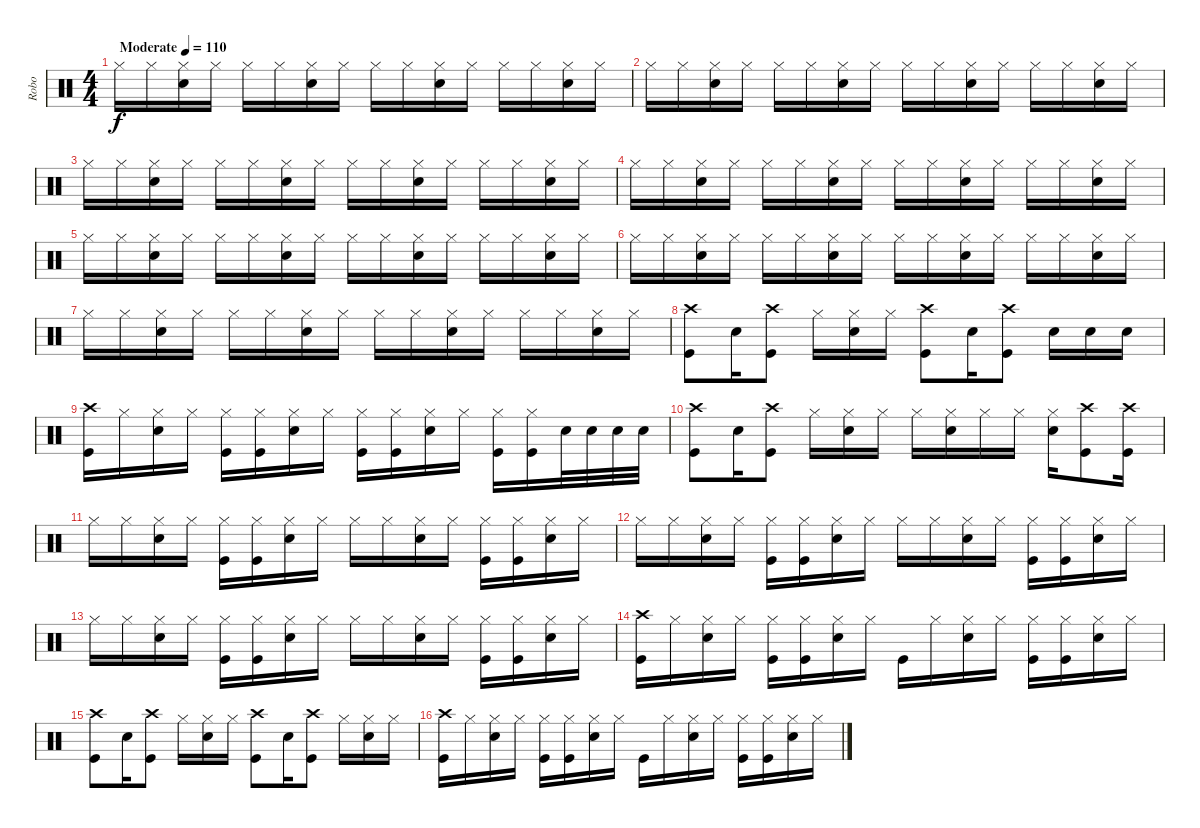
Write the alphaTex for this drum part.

\track ("Robo" "Robo") {instrument percussion}
\staff {score}
\articulation defaults
\ts (4 4)
\tempo (110 "Moderate")
\clef neutral
\ks c "Hi-Hat (closed)".16{dy f} "Hi-Hat (closed)".16
("Snare (hit) 2" "Hi-Hat (closed)").16 "Hi-Hat (closed)".16 "Hi-Hat (closed)".16 "Hi-Hat (closed)".16 ("Snare (hit) 2" "Hi-Hat (closed)").16 "Hi-Hat (closed)".16 "Hi-Hat (closed)".16 "Hi-Hat (closed)".16 ("Snare (hit) 2" "Hi-Hat (closed)").16 "Hi-Hat (closed)".16 "Hi-Hat (closed)".16 "Hi-Hat (closed)".16 ("Snare (hit) 2" "Hi-Hat (closed)").16 "Hi-Hat (closed)".16 |
"Hi-Hat (closed)".16 "Hi-Hat (closed)".16 ("Snare (hit) 2" "Hi-Hat (closed)").16 "Hi-Hat (closed)".16 "Hi-Hat (closed)".16 "Hi-Hat (closed)".16 ("Snare (hit) 2" "Hi-Hat (closed)").16 "Hi-Hat (closed)".16 "Hi-Hat (closed)".16 "Hi-Hat (closed)".16 ("Snare (hit) 2" "Hi-Hat (closed)").16 "Hi-Hat (closed)".16 "Hi-Hat (closed)".16 "Hi-Hat (closed)".16 ("Snare (hit) 2" "Hi-Hat (closed)").16 "Hi-Hat (closed)".16 |
"Hi-Hat (closed)".16 "Hi-Hat (closed)".16 ("Snare (hit) 2" "Hi-Hat (closed)").16 "Hi-Hat (closed)".16 "Hi-Hat (closed)".16 "Hi-Hat (closed)".16 ("Snare (hit) 2" "Hi-Hat (closed)").16 "Hi-Hat (closed)".16 "Hi-Hat (closed)".16 "Hi-Hat (closed)".16 ("Snare (hit) 2" "Hi-Hat (closed)").16 "Hi-Hat (closed)".16 "Hi-Hat (closed)".16 "Hi-Hat (closed)".16 ("Snare (hit) 2" "Hi-Hat (closed)").16 "Hi-Hat (closed)".16 |
"Hi-Hat (closed)".16 "Hi-Hat (closed)".16 ("Snare (hit) 2" "Hi-Hat (closed)").16 "Hi-Hat (closed)".16 "Hi-Hat (closed)".16 "Hi-Hat (closed)".16 ("Snare (hit) 2" "Hi-Hat (closed)").16 "Hi-Hat (closed)".16 "Hi-Hat (closed)".16 "Hi-Hat (closed)".16 ("Snare (hit) 2" "Hi-Hat (closed)").16 "Hi-Hat (closed)".16 "Hi-Hat (closed)".16 "Hi-Hat (closed)".16 ("Snare (hit) 2" "Hi-Hat (closed)").16 "Hi-Hat (closed)".16 |
"Hi-Hat (closed)".16 "Hi-Hat (closed)".16 ("Snare (hit) 2" "Hi-Hat (closed)").16 "Hi-Hat (closed)".16 "Hi-Hat (closed)".16 "Hi-Hat (closed)".16 ("Snare (hit) 2" "Hi-Hat (closed)").16 "Hi-Hat (closed)".16 "Hi-Hat (closed)".16 "Hi-Hat (closed)".16 ("Snare (hit) 2" "Hi-Hat (closed)").16 "Hi-Hat (closed)".16 "Hi-Hat (closed)".16 "Hi-Hat (closed)".16 ("Snare (hit) 2" "Hi-Hat (closed)").16 "Hi-Hat (closed)".16 |
"Hi-Hat (closed)".16 "Hi-Hat (closed)".16 ("Snare (hit) 2" "Hi-Hat (closed)").16 "Hi-Hat (closed)".16 "Hi-Hat (closed)".16 "Hi-Hat (closed)".16 ("Snare (hit) 2" "Hi-Hat (closed)").16 "Hi-Hat (closed)".16 "Hi-Hat (closed)".16 "Hi-Hat (closed)".16 ("Snare (hit) 2" "Hi-Hat (closed)").16 "Hi-Hat (closed)".16 "Hi-Hat (closed)".16 "Hi-Hat (closed)".16 ("Snare (hit) 2" "Hi-Hat (closed)").16 "Hi-Hat (closed)".16 |
"Hi-Hat (closed)".16 "Hi-Hat (closed)".16 ("Snare (hit) 2" "Hi-Hat (closed)").16 "Hi-Hat (closed)".16 "Hi-Hat (closed)".16 "Hi-Hat (closed)".16 ("Snare (hit) 2" "Hi-Hat (closed)").16 "Hi-Hat (closed)".16 "Hi-Hat (closed)".16 "Hi-Hat (closed)".16 ("Snare (hit) 2" "Hi-Hat (closed)").16 "Hi-Hat (closed)".16 "Hi-Hat (closed)".16 "Hi-Hat (closed)".16 ("Snare (hit) 2" "Hi-Hat (closed)").16 "Hi-Hat (closed)".16 |
("Crash high (hit)" "Kick (hit)").8 "Snare (hit) 2".16 ("Crash high (hit)" "Kick (hit)").8 "Hi-Hat (closed)".16 ("Hi-Hat (closed)" "Snare (hit) 2").16 "Hi-Hat (closed)".16 ("Crash high (hit)" "Kick (hit)").8 "Snare (hit) 2".16 ("Crash high (hit)" "Kick (hit)").8 "Snare (hit) 2".16 "Snare (hit) 2".16 "Snare (hit) 2".16 |
("Crash high (hit)" "Kick (hit)").16 "Hi-Hat (closed)".16 ("Hi-Hat (closed)" "Snare (hit) 2").16 "Hi-Hat (closed)".16 ("Hi-Hat (closed)" "Kick (hit)").16 ("Hi-Hat (closed)" "Kick (hit)").16 ("Hi-Hat (closed)" "Snare (hit) 2").16 "Hi-Hat (closed)".16 ("Hi-Hat (closed)" "Kick (hit)").16 ("Hi-Hat (closed)" "Kick (hit)").16 ("Hi-Hat (closed)" "Snare (hit) 2").16 "Hi-Hat (closed)".16 ("Hi-Hat (closed)" "Kick (hit)").16 ("Hi-Hat (closed)" "Kick (hit)").16 "Snare (hit) 2".32 "Snare (hit) 2".32 "Snare (hit) 2".32 "Snare (hit) 2".32 |
("Crash high (hit)" "Kick (hit)").8 "Snare (hit) 2".16 ("Crash high (hit)" "Kick (hit)").8 "Hi-Hat (closed)".16 ("Hi-Hat (closed)" "Snare (hit) 2").16 "Hi-Hat (closed)".16 "Hi-Hat (closed)".16 ("Hi-Hat (closed)" "Snare (hit) 2").16 "Hi-Hat (closed)".16 "Hi-Hat (closed)".16 ("Hi-Hat (closed)" "Snare (hit) 2").16 ("Crash high (hit)" "Kick (hit)").8 ("Crash high (hit)" "Kick (hit)").16 |
"Hi-Hat (closed)".16 "Hi-Hat (closed)".16 ("Hi-Hat (closed)" "Snare (hit) 2").16 "Hi-Hat (closed)".16 ("Hi-Hat (closed)" "Kick (hit)").16 ("Hi-Hat (closed)" "Kick (hit)").16 ("Hi-Hat (closed)" "Snare (hit) 2").16 "Hi-Hat (closed)".16 "Hi-Hat (closed)".16 "Hi-Hat (closed)".16 ("Hi-Hat (closed)" "Snare (hit) 2").16 "Hi-Hat (closed)".16 ("Hi-Hat (closed)" "Kick (hit)").16 ("Hi-Hat (closed)" "Kick (hit)").16 ("Hi-Hat (closed)" "Snare (hit) 2").16 "Hi-Hat (closed)".16 |
"Hi-Hat (closed)".16 "Hi-Hat (closed)".16 ("Hi-Hat (closed)" "Snare (hit) 2").16 "Hi-Hat (closed)".16 ("Hi-Hat (closed)" "Kick (hit)").16 ("Hi-Hat (closed)" "Kick (hit)").16 ("Hi-Hat (closed)" "Snare (hit) 2").16 "Hi-Hat (closed)".16 "Hi-Hat (closed)".16 "Hi-Hat (closed)".16 ("Hi-Hat (closed)" "Snare (hit) 2").16 "Hi-Hat (closed)".16 ("Hi-Hat (closed)" "Kick (hit)").16 ("Hi-Hat (closed)" "Kick (hit)").16 ("Hi-Hat (closed)" "Snare (hit) 2").16 "Hi-Hat (closed)".16 |
"Hi-Hat (closed)".16 "Hi-Hat (closed)".16 ("Hi-Hat (closed)" "Snare (hit) 2").16 "Hi-Hat (closed)".16 ("Hi-Hat (closed)" "Kick (hit)").16 ("Hi-Hat (closed)" "Kick (hit)").16 ("Hi-Hat (closed)" "Snare (hit) 2").16 "Hi-Hat (closed)".16 "Hi-Hat (closed)".16 "Hi-Hat (closed)".16 ("Hi-Hat (closed)" "Snare (hit) 2").16 "Hi-Hat (closed)".16 ("Hi-Hat (closed)" "Kick (hit)").16 ("Hi-Hat (closed)" "Kick (hit)").16 ("Hi-Hat (closed)" "Snare (hit) 2").16 "Hi-Hat (closed)".16 |
("Crash high (hit)" "Kick (hit)").16 "Hi-Hat (closed)".16 ("Hi-Hat (closed)" "Snare (hit) 2").16 "Hi-Hat (closed)".16 ("Hi-Hat (closed)" "Kick (hit)").16 ("Hi-Hat (closed)" "Kick (hit)").16 ("Hi-Hat (closed)" "Snare (hit) 2").16 "Hi-Hat (closed)".16 "Kick (hit)".16 "Hi-Hat (closed)".16 ("Hi-Hat (closed)" "Snare (hit) 2").16 "Hi-Hat (closed)".16 ("Hi-Hat (closed)" "Kick (hit)").16 ("Hi-Hat (closed)" "Kick (hit)").16 ("Hi-Hat (closed)" "Snare (hit) 2").16 "Hi-Hat (closed)".16 |
("Crash high (hit)" "Kick (hit)").8 "Snare (hit) 2".16 ("Crash high (hit)" "Kick (hit)").8 "Hi-Hat (closed)".16 ("Hi-Hat (closed)" "Snare (hit) 2").16 "Hi-Hat (closed)".16 ("Crash high (hit)" "Kick (hit)").8 "Snare (hit) 2".16 ("Crash high (hit)" "Kick (hit)").8 "Hi-Hat (closed)".16 ("Hi-Hat (closed)" "Snare (hit) 2").16 "Hi-Hat (closed)".16 |
("Crash high (hit)" "Kick (hit)").16 "Hi-Hat (closed)".16 ("Hi-Hat (closed)" "Snare (hit) 2").16 "Hi-Hat (closed)".16 ("Hi-Hat (closed)" "Kick (hit)").16 ("Hi-Hat (closed)" "Kick (hit)").16 ("Hi-Hat (closed)" "Snare (hit) 2").16 "Hi-Hat (closed)".16 "Kick (hit)".16 "Hi-Hat (closed)".16 ("Hi-Hat (closed)" "Snare (hit) 2").16 "Hi-Hat (closed)".16 ("Hi-Hat (closed)" "Kick (hit)").16 ("Hi-Hat (closed)" "Kick (hit)").16 ("Hi-Hat (closed)" "Snare (hit) 2").16 "Hi-Hat (closed)".16
